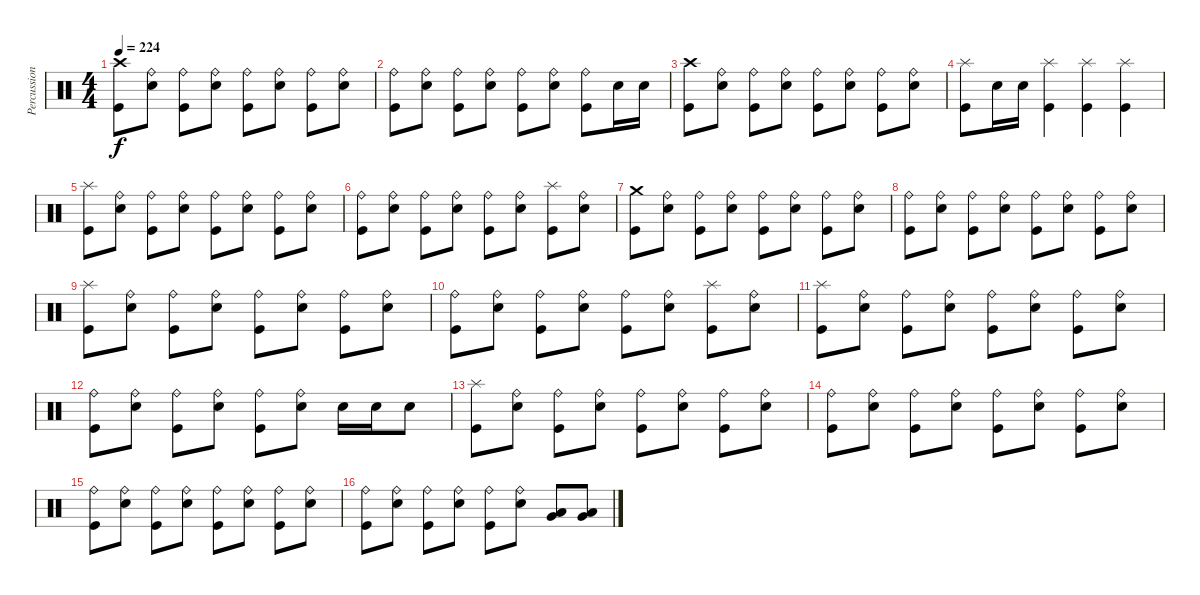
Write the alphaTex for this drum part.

\track ("Percussions" "Percussion") {instrument percussion}
\staff {score}
\articulation defaults
\ts (4 4)
\tempo 224
\clef neutral
\ks c
("Kick (hit)" "Crash high (hit)").8{dy f} ("Electric Snare (hit)" "Ride (bell)").8 ("Kick (hit)" "Ride (bell)").8 ("Electric Snare (hit)" "Ride (bell)").8 ("Kick (hit)" "Ride (bell)").8 ("Electric Snare (hit)" "Ride (bell)").8 ("Kick (hit)" "Ride (bell)").8 ("Electric Snare (hit)" "Ride (bell)").8 |
("Kick (hit)" "Ride (bell)").8 ("Electric Snare (hit)" "Ride (bell)").8 ("Kick (hit)" "Ride (bell)").8 ("Electric Snare (hit)" "Ride (bell)").8 ("Kick (hit)" "Ride (bell)").8 ("Electric Snare (hit)" "Ride (bell)").8 ("Kick (hit)" "Ride (bell)").8 "Electric Snare (hit)".16 "Electric Snare (hit)".16 |
("Kick (hit)" "Crash high (hit)").8 ("Electric Snare (hit)" "Ride (bell)").8 ("Kick (hit)" "Ride (bell)").8 ("Electric Snare (hit)" "Ride (bell)").8 ("Kick (hit)" "Ride (bell)").8 ("Electric Snare (hit)" "Ride (bell)").8 ("Kick (hit)" "Ride (bell)").8 ("Electric Snare (hit)" "Ride (bell)").8 |
("Kick (hit)" "Splash (hit)").8 "Electric Snare (hit)".16 "Electric Snare (hit)".16 ("Kick (hit)" "Splash (hit)").4 ("Kick (hit)" "Splash (hit)").4 ("Kick (hit)" "Splash (hit)").4 |
("Kick (hit)" "Splash (hit)").8 ("Electric Snare (hit)" "Ride (bell)").8 ("Kick (hit)" "Ride (bell)").8 ("Electric Snare (hit)" "Ride (bell)").8 ("Kick (hit)" "Ride (bell)").8 ("Electric Snare (hit)" "Ride (bell)").8 ("Kick (hit)" "Ride (bell)").8 ("Electric Snare (hit)" "Ride (bell)").8 |
("Kick (hit)" "Ride (bell)").8 ("Electric Snare (hit)" "Ride (bell)").8 ("Kick (hit)" "Ride (bell)").8 ("Electric Snare (hit)" "Ride (bell)").8 ("Kick (hit)" "Ride (bell)").8 ("Electric Snare (hit)" "Ride (bell)").8 ("Kick (hit)" "Splash (hit)").8 ("Electric Snare (hit)" "Ride (bell)").8 |
("Kick (hit)" "Crash medium (hit)").8 ("Electric Snare (hit)" "Ride (bell)").8 ("Kick (hit)" "Ride (bell)").8 ("Electric Snare (hit)" "Ride (bell)").8 ("Kick (hit)" "Ride (bell)").8 ("Electric Snare (hit)" "Ride (bell)").8 ("Kick (hit)" "Ride (bell)").8 ("Electric Snare (hit)" "Ride (bell)").8 |
("Kick (hit)" "Ride (bell)").8 ("Electric Snare (hit)" "Ride (bell)").8 ("Kick (hit)" "Ride (bell)").8 ("Electric Snare (hit)" "Ride (bell)").8 ("Kick (hit)" "Ride (bell)").8 ("Electric Snare (hit)" "Ride (bell)").8 ("Kick (hit)" "Ride (bell)").8 ("Electric Snare (hit)" "Ride (bell)").8 |
("Kick (hit)" "Splash (hit)").8 ("Electric Snare (hit)" "Ride (bell)").8 ("Kick (hit)" "Ride (bell)").8 ("Electric Snare (hit)" "Ride (bell)").8 ("Kick (hit)" "Ride (bell)").8 ("Electric Snare (hit)" "Ride (bell)").8 ("Kick (hit)" "Ride (bell)").8 ("Electric Snare (hit)" "Ride (bell)").8 |
("Kick (hit)" "Ride (bell)").8 ("Electric Snare (hit)" "Ride (bell)").8 ("Kick (hit)" "Ride (bell)").8 ("Electric Snare (hit)" "Ride (bell)").8 ("Kick (hit)" "Ride (bell)").8 ("Electric Snare (hit)" "Ride (bell)").8 ("Kick (hit)" "Splash (hit)").8 ("Electric Snare (hit)" "Ride (bell)").8 |
("Kick (hit)" "Splash (hit)").8 ("Electric Snare (hit)" "Ride (bell)").8 ("Kick (hit)" "Ride (bell)").8 ("Electric Snare (hit)" "Ride (bell)").8 ("Kick (hit)" "Ride (bell)").8 ("Electric Snare (hit)" "Ride (bell)").8 ("Kick (hit)" "Ride (bell)").8 ("Electric Snare (hit)" "Ride (bell)").8 |
("Kick (hit)" "Ride (bell)").8 ("Electric Snare (hit)" "Ride (bell)").8 ("Kick (hit)" "Ride (bell)").8 ("Electric Snare (hit)" "Ride (bell)").8 ("Kick (hit)" "Ride (bell)").8 ("Electric Snare (hit)" "Ride (bell)").8 "Electric Snare (hit)".16 "Electric Snare (hit)".16 "Electric Snare (hit)".8 |
("Kick (hit)" "Splash (hit)").8 ("Electric Snare (hit)" "Ride (bell)").8 ("Kick (hit)" "Ride (bell)").8 ("Electric Snare (hit)" "Ride (bell)").8 ("Kick (hit)" "Ride (bell)").8 ("Electric Snare (hit)" "Ride (bell)").8 ("Kick (hit)" "Ride (bell)").8 ("Electric Snare (hit)" "Ride (bell)").8 |
("Kick (hit)" "Ride (bell)").8 ("Electric Snare (hit)" "Ride (bell)").8 ("Kick (hit)" "Ride (bell)").8 ("Electric Snare (hit)" "Ride (bell)").8 ("Kick (hit)" "Ride (bell)").8 ("Electric Snare (hit)" "Ride (bell)").8 ("Kick (hit)" "Ride (bell)").8 ("Electric Snare (hit)" "Ride (bell)").8 |
("Kick (hit)" "Ride (bell)").8 ("Electric Snare (hit)" "Ride (bell)").8 ("Kick (hit)" "Ride (bell)").8 ("Electric Snare (hit)" "Ride (bell)").8 ("Kick (hit)" "Ride (bell)").8 ("Electric Snare (hit)" "Ride (bell)").8 ("Kick (hit)" "Ride (bell)").8 ("Electric Snare (hit)" "Ride (bell)").8 |
("Kick (hit)" "Ride (bell)").8 ("Electric Snare (hit)" "Ride (bell)").8 ("Kick (hit)" "Ride (bell)").8 ("Electric Snare (hit)" "Ride (bell)").8 ("Kick (hit)" "Ride (bell)").8 ("Electric Snare (hit)" "Ride (bell)").8 ("Very Low Tom (hit)" "Low Floor Tom (hit)").8 ("Very Low Tom (hit)" "Low Floor Tom (hit)").8
